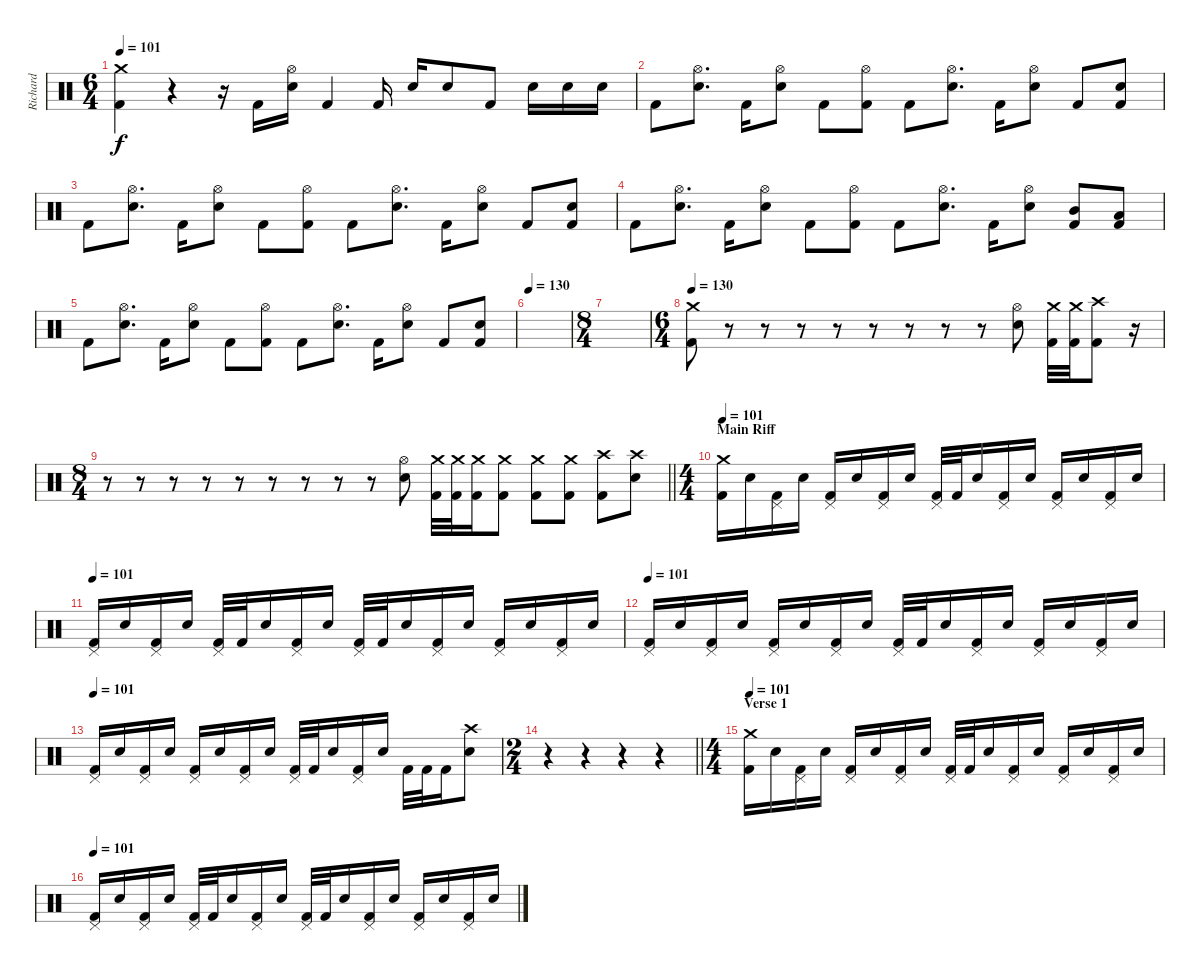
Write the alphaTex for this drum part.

\track ("Richard" "Richard") {instrument percussion}
\staff {score}
\articulation defaults
\ts (6 4)
\tempo 101
\clef neutral
\ks c
("Crash medium (hit)" "Kick (hit) 2").4{dy f} r.4 r.16 "Kick (hit) 2".16 ("Hi-Hat (open)" "Electric Snare (hit)").16 "Kick (hit) 2".4 "Kick (hit) 2".16 "Electric Snare (hit)".16 "Electric Snare (hit)".8 "Kick (hit) 2".8 "Electric Snare (hit)".16 "Electric Snare (hit)".16 "Electric Snare (hit)".16 |
"Kick (hit) 2".8 ("Hi-Hat (open)" "Electric Snare (hit)").8{d} "Kick (hit) 2".16 ("Hi-Hat (open)" "Electric Snare (hit)").8 "Kick (hit) 2".8 ("Hi-Hat (open)" "Kick (hit) 2").8 "Kick (hit) 2".8 ("Hi-Hat (open)" "Electric Snare (hit)").8{d} "Kick (hit) 2".16 ("Hi-Hat (open)" "Electric Snare (hit)").8 "Kick (hit) 2".8 ("Electric Snare (hit)" "Kick (hit) 2").8 |
"Kick (hit) 2".8 ("Hi-Hat (open)" "Electric Snare (hit)").8{d} "Kick (hit) 2".16 ("Hi-Hat (open)" "Electric Snare (hit)").8 "Kick (hit) 2".8 ("Hi-Hat (open)" "Kick (hit) 2").8 "Kick (hit) 2".8 ("Hi-Hat (open)" "Electric Snare (hit)").8{d} "Kick (hit) 2".16 ("Hi-Hat (open)" "Electric Snare (hit)").8 "Kick (hit) 2".8 ("Electric Snare (hit)" "Kick (hit) 2").8 |
"Kick (hit) 2".8 ("Hi-Hat (open)" "Electric Snare (hit)").8{d} "Kick (hit) 2".16 ("Hi-Hat (open)" "Electric Snare (hit)").8 "Kick (hit) 2".8 ("Hi-Hat (open)" "Kick (hit) 2").8 "Kick (hit) 2".8 ("Hi-Hat (open)" "Electric Snare (hit)").8{d} "Kick (hit) 2".16 ("Hi-Hat (open)" "Electric Snare (hit)").8 ("Mid Tom (hit)" "Kick (hit) 2").8 ("Low Tom (hit)" "Kick (hit) 2").8 |
"Kick (hit) 2".8 ("Hi-Hat (open)" "Electric Snare (hit)").8{d} "Kick (hit) 2".16 ("Hi-Hat (open)" "Electric Snare (hit)").8 "Kick (hit) 2".8 ("Hi-Hat (open)" "Kick (hit) 2").8 "Kick (hit) 2".8 ("Hi-Hat (open)" "Electric Snare (hit)").8{d} "Kick (hit) 2".16 ("Hi-Hat (open)" "Electric Snare (hit)").8 "Kick (hit) 2".8 ("Electric Snare (hit)" "Kick (hit) 2").8 |
\tempo 130
|
\ts (8 4)
|
\ts (6 4)
\tempo 130
("Crash medium (hit)" "Kick (hit) 2").8 r.8 r.8 r.8 r.8 r.8 r.8 r.8 r.8 ("Hi-Hat (open)" "Electric Snare (hit)").8 ("Crash medium (hit)" "Kick (hit) 2").32 ("Crash medium (hit)" "Kick (hit) 2").32 ("Crash high (hit)" "Kick (hit) 2").8 r.16 |
\ts (8 4)
\barLineRight lightlight
r.8 r.8 r.8 r.8 r.8 r.8 r.8 r.8 r.8 ("Hi-Hat (open)" "Electric Snare (hit)").8 ("Crash medium (hit)" "Kick (hit) 2").32 ("Crash medium (hit)" "Kick (hit) 2").32 ("Crash medium (hit)" "Kick (hit) 2").16 ("Crash medium (hit)" "Kick (hit) 2").8 ("Crash medium (hit)" "Kick (hit) 2").8 ("Crash medium (hit)" "Kick (hit) 2").8 ("Crash high (hit)" "Kick (hit) 2").8 ("Crash high (hit)" "Electric Snare (hit)").8 |
\ts (4 4)
\section ("" "Main Riff")
\tempo 101
("Crash medium (hit)" "Kick (hit) 2").16 "Electric Snare (hit)".16 ("Pedal Hi-Hat (hit)" "Kick (hit) 2").16 "Electric Snare (hit)".16 ("Pedal Hi-Hat (hit)" "Kick (hit) 2").16 "Electric Snare (hit)".16 ("Pedal Hi-Hat (hit)" "Kick (hit) 2").16 "Electric Snare (hit)".16 ("Pedal Hi-Hat (hit)" "Kick (hit) 2").32 "Kick (hit) 2".32 "Electric Snare (hit)".16 ("Pedal Hi-Hat (hit)" "Kick (hit) 2").16 "Electric Snare (hit)".16 ("Pedal Hi-Hat (hit)" "Kick (hit) 2").16 "Electric Snare (hit)".16 ("Pedal Hi-Hat (hit)" "Kick (hit) 2").16 "Electric Snare (hit)".16 |
\tempo 101
("Pedal Hi-Hat (hit)" "Kick (hit) 2").16 "Electric Snare (hit)".16 ("Pedal Hi-Hat (hit)" "Kick (hit) 2").16 "Electric Snare (hit)".16 ("Pedal Hi-Hat (hit)" "Kick (hit) 2").32 "Kick (hit) 2".32 "Electric Snare (hit)".16 ("Pedal Hi-Hat (hit)" "Kick (hit) 2").16 "Electric Snare (hit)".16 ("Pedal Hi-Hat (hit)" "Kick (hit) 2").32 "Kick (hit) 2".32 "Electric Snare (hit)".16 ("Pedal Hi-Hat (hit)" "Kick (hit) 2").16 "Electric Snare (hit)".16 ("Pedal Hi-Hat (hit)" "Kick (hit) 2").16 "Electric Snare (hit)".16 ("Pedal Hi-Hat (hit)" "Kick (hit) 2").16 "Electric Snare (hit)".16 |
\tempo 101
("Pedal Hi-Hat (hit)" "Kick (hit) 2").16 "Electric Snare (hit)".16 ("Pedal Hi-Hat (hit)" "Kick (hit) 2").16 "Electric Snare (hit)".16 ("Pedal Hi-Hat (hit)" "Kick (hit) 2").16 "Electric Snare (hit)".16 ("Pedal Hi-Hat (hit)" "Kick (hit) 2").16 "Electric Snare (hit)".16 ("Pedal Hi-Hat (hit)" "Kick (hit) 2").32 "Kick (hit) 2".32 "Electric Snare (hit)".16 ("Pedal Hi-Hat (hit)" "Kick (hit) 2").16 "Electric Snare (hit)".16 ("Pedal Hi-Hat (hit)" "Kick (hit) 2").16 "Electric Snare (hit)".16 ("Pedal Hi-Hat (hit)" "Kick (hit) 2").16 "Electric Snare (hit)".16 |
\tempo 101
("Pedal Hi-Hat (hit)" "Kick (hit) 2").16 "Electric Snare (hit)".16 ("Pedal Hi-Hat (hit)" "Kick (hit) 2").16 "Electric Snare (hit)".16 ("Pedal Hi-Hat (hit)" "Kick (hit) 2").16 "Electric Snare (hit)".16 ("Pedal Hi-Hat (hit)" "Kick (hit) 2").16 "Electric Snare (hit)".16 ("Pedal Hi-Hat (hit)" "Kick (hit) 2").32 "Kick (hit) 2".32 "Electric Snare (hit)".16 ("Pedal Hi-Hat (hit)" "Kick (hit) 2").16 "Electric Snare (hit)".16 "Kick (hit) 2".32 "Kick (hit) 2".32 "Kick (hit) 2".16 ("Crash high (hit)" "Electric Snare (hit)").8 |
\ts (2 4)
\barLineRight lightlight
r.4 r.4 r.4 r.4 |
\ts (4 4)
\section ("" "Verse 1")
\tempo 101
("Crash medium (hit)" "Kick (hit) 2").16 "Electric Snare (hit)".16 ("Pedal Hi-Hat (hit)" "Kick (hit) 2").16 "Electric Snare (hit)".16 ("Pedal Hi-Hat (hit)" "Kick (hit) 2").16 "Electric Snare (hit)".16 ("Pedal Hi-Hat (hit)" "Kick (hit) 2").16 "Electric Snare (hit)".16 ("Pedal Hi-Hat (hit)" "Kick (hit) 2").32 "Kick (hit) 2".32 "Electric Snare (hit)".16 ("Pedal Hi-Hat (hit)" "Kick (hit) 2").16 "Electric Snare (hit)".16 ("Pedal Hi-Hat (hit)" "Kick (hit) 2").16 "Electric Snare (hit)".16 ("Pedal Hi-Hat (hit)" "Kick (hit) 2").16 "Electric Snare (hit)".16 |
\tempo 101
("Pedal Hi-Hat (hit)" "Kick (hit) 2").16 "Electric Snare (hit)".16 ("Pedal Hi-Hat (hit)" "Kick (hit) 2").16 "Electric Snare (hit)".16 ("Pedal Hi-Hat (hit)" "Kick (hit) 2").32 "Kick (hit) 2".32 "Electric Snare (hit)".16 ("Pedal Hi-Hat (hit)" "Kick (hit) 2").16 "Electric Snare (hit)".16 ("Pedal Hi-Hat (hit)" "Kick (hit) 2").32 "Kick (hit) 2".32 "Electric Snare (hit)".16 ("Pedal Hi-Hat (hit)" "Kick (hit) 2").16 "Electric Snare (hit)".16 ("Pedal Hi-Hat (hit)" "Kick (hit) 2").16 "Electric Snare (hit)".16 ("Pedal Hi-Hat (hit)" "Kick (hit) 2").16 "Electric Snare (hit)".16
